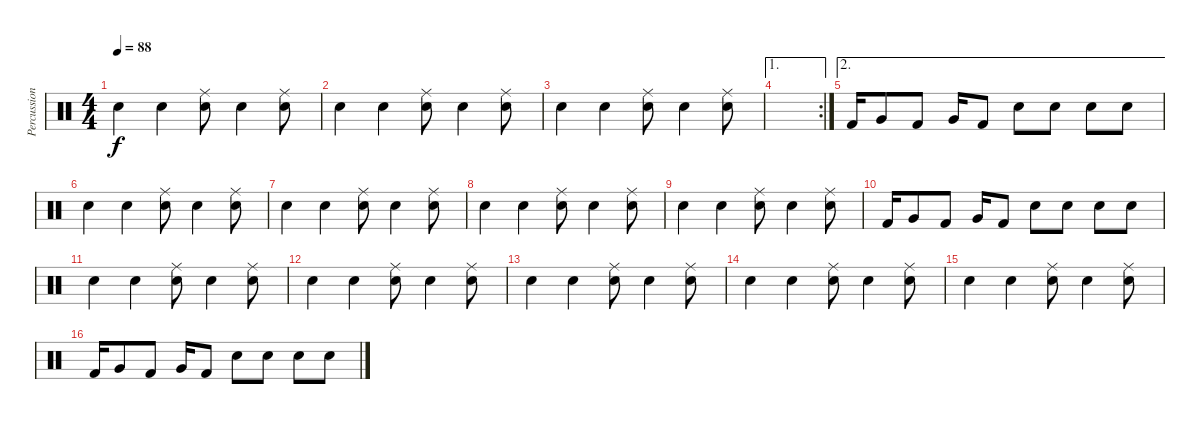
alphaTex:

\track ("Percussions" "Percussion") {instrument percussion}
\staff {score}
\articulation defaults
\ts (4 4)
\tempo 88
\clef neutral
\ks c "Electric Snare (hit)".4{dy f} "Electric Snare (hit)".4
("Electric Snare (hit)" "Ride (middle)").8 "Electric Snare (hit)".4 ("Electric Snare (hit)" "Ride (middle)").8 |
"Electric Snare (hit)".4 "Electric Snare (hit)".4 ("Electric Snare (hit)" "Ride (middle)").8 "Electric Snare (hit)".4 ("Electric Snare (hit)" "Ride (middle)").8 |
"Electric Snare (hit)".4 "Electric Snare (hit)".4 ("Electric Snare (hit)" "Ride (middle)").8 "Electric Snare (hit)".4 ("Electric Snare (hit)" "Ride (middle)").8 |
\ae 1
\rc 2
|
\ae 2 "Kick (hit) 2".16 "Very Low Tom (hit)".8 "Kick (hit) 2".8 "Very Low Tom (hit)".16 "Kick (hit) 2".8 "Electric Snare (hit)".8 "Electric Snare (hit)".8 "Electric Snare (hit)".8 "Electric Snare (hit)".8
|
"Electric Snare (hit)".4 "Electric Snare (hit)".4 ("Electric Snare (hit)" "Ride (middle)").8 "Electric Snare (hit)".4 ("Electric Snare (hit)" "Ride (middle)").8 |
"Electric Snare (hit)".4 "Electric Snare (hit)".4 ("Electric Snare (hit)" "Ride (middle)").8 "Electric Snare (hit)".4 ("Electric Snare (hit)" "Ride (middle)").8 |
"Electric Snare (hit)".4 "Electric Snare (hit)".4 ("Electric Snare (hit)" "Ride (middle)").8 "Electric Snare (hit)".4 ("Electric Snare (hit)" "Ride (middle)").8 |
"Electric Snare (hit)".4 "Electric Snare (hit)".4 ("Electric Snare (hit)" "Ride (middle)").8 "Electric Snare (hit)".4 ("Electric Snare (hit)" "Ride (middle)").8 |
"Kick (hit) 2".16 "Very Low Tom (hit)".8 "Kick (hit) 2".8 "Very Low Tom (hit)".16 "Kick (hit) 2".8 "Electric Snare (hit)".8 "Electric Snare (hit)".8 "Electric Snare (hit)".8 "Electric Snare (hit)".8 |
"Electric Snare (hit)".4 "Electric Snare (hit)".4 ("Electric Snare (hit)" "Ride (middle)").8 "Electric Snare (hit)".4 ("Electric Snare (hit)" "Ride (middle)").8 |
"Electric Snare (hit)".4 "Electric Snare (hit)".4 ("Electric Snare (hit)" "Ride (middle)").8 "Electric Snare (hit)".4 ("Electric Snare (hit)" "Ride (middle)").8 |
"Electric Snare (hit)".4 "Electric Snare (hit)".4 ("Electric Snare (hit)" "Ride (middle)").8 "Electric Snare (hit)".4 ("Electric Snare (hit)" "Ride (middle)").8 |
"Electric Snare (hit)".4 "Electric Snare (hit)".4 ("Electric Snare (hit)" "Ride (middle)").8 "Electric Snare (hit)".4 ("Electric Snare (hit)" "Ride (middle)").8 |
"Electric Snare (hit)".4 "Electric Snare (hit)".4 ("Electric Snare (hit)" "Ride (middle)").8 "Electric Snare (hit)".4 ("Electric Snare (hit)" "Ride (middle)").8 |
"Kick (hit) 2".16 "Very Low Tom (hit)".8 "Kick (hit) 2".8 "Very Low Tom (hit)".16 "Kick (hit) 2".8 "Electric Snare (hit)".8 "Electric Snare (hit)".8 "Electric Snare (hit)".8 "Electric Snare (hit)".8
